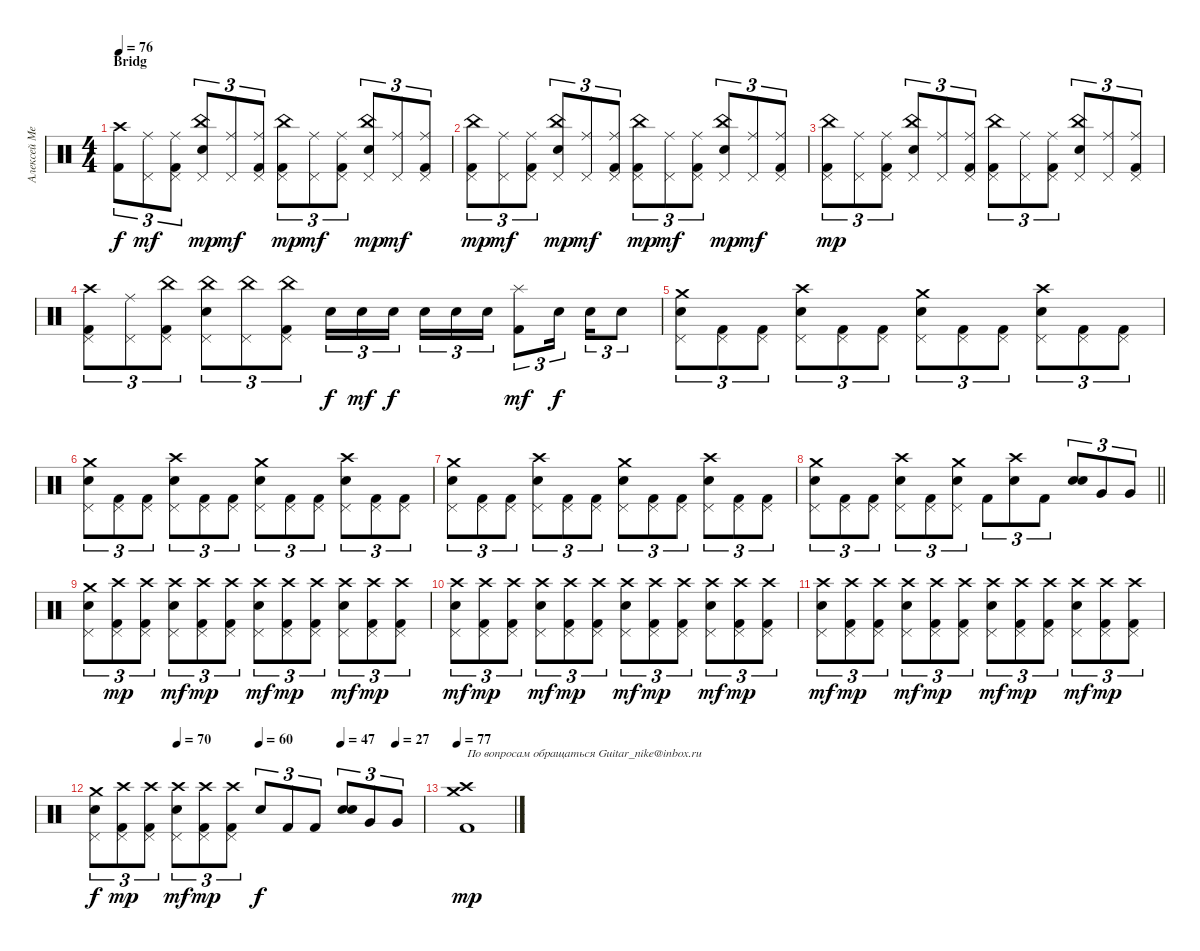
\track ("Алексей Мещеряков" "Алексей Ме") {instrument percussion}
\staff {score}
\articulation defaults
\ts (4 4)
\section ("" "Bridg")
\tempo 76
\clef neutral
\ks c
("Crash high (hit)" "Kick (hit) 2").8{tu (3 2) dy f} ("Ride (middle)" "Pedal Hi-Hat (hit)").8{tu (3 2) dy mf} ("Ride (middle)" "Pedal Hi-Hat (hit)" "Kick (hit) 2").8{tu (3 2)} ("China (hit)" "Pedal Hi-Hat (hit)" "Electric Snare (hit)").8{tu (3 2) dy mp} ("Ride (middle)" "Pedal Hi-Hat (hit)").8{tu (3 2) dy mf} ("Ride (middle)" "Pedal Hi-Hat (hit)" "Kick (hit) 2").8{tu (3 2)} ("China (hit)" "Pedal Hi-Hat (hit)" "Kick (hit) 2").8{tu (3 2) dy mp} ("Ride (middle)" "Pedal Hi-Hat (hit)").8{tu (3 2) dy mf} ("Ride (middle)" "Pedal Hi-Hat (hit)" "Kick (hit) 2").8{tu (3 2)} ("China (hit)" "Pedal Hi-Hat (hit)" "Electric Snare (hit)").8{tu (3 2) dy mp} ("Ride (middle)" "Pedal Hi-Hat (hit)").8{tu (3 2) dy mf} ("Ride (middle)" "Pedal Hi-Hat (hit)" "Kick (hit) 2").8{tu (3 2)} |
("China (hit)" "Pedal Hi-Hat (hit)" "Kick (hit) 2").8{tu (3 2) dy mp} ("Ride (middle)" "Pedal Hi-Hat (hit)").8{tu (3 2) dy mf} ("Ride (middle)" "Pedal Hi-Hat (hit)" "Kick (hit) 2").8{tu (3 2)} ("China (hit)" "Pedal Hi-Hat (hit)" "Electric Snare (hit)").8{tu (3 2) dy mp} ("Ride (middle)" "Pedal Hi-Hat (hit)").8{tu (3 2) dy mf} ("Ride (middle)" "Pedal Hi-Hat (hit)" "Kick (hit) 2").8{tu (3 2)} ("China (hit)" "Pedal Hi-Hat (hit)" "Kick (hit) 2").8{tu (3 2) dy mp} ("Ride (middle)" "Pedal Hi-Hat (hit)").8{tu (3 2) dy mf} ("Ride (middle)" "Pedal Hi-Hat (hit)" "Kick (hit) 2").8{tu (3 2)} ("China (hit)" "Pedal Hi-Hat (hit)" "Electric Snare (hit)").8{tu (3 2) dy mp} ("Ride (middle)" "Pedal Hi-Hat (hit)").8{tu (3 2) dy mf} ("Ride (middle)" "Pedal Hi-Hat (hit)" "Kick (hit) 2").8{tu (3 2)} |
("China (hit)" "Pedal Hi-Hat (hit)" "Kick (hit) 2").8{tu (3 2) dy mp} ("Ride (middle)" "Pedal Hi-Hat (hit)").8{tu (3 2)} ("Ride (middle)" "Pedal Hi-Hat (hit)" "Kick (hit) 2").8{tu (3 2)} ("China (hit)" "Pedal Hi-Hat (hit)" "Electric Snare (hit)").8{tu (3 2)} ("Ride (middle)" "Pedal Hi-Hat (hit)").8{tu (3 2)} ("Ride (middle)" "Pedal Hi-Hat (hit)" "Kick (hit) 2").8{tu (3 2)} ("China (hit)" "Pedal Hi-Hat (hit)" "Kick (hit) 2").8{tu (3 2)} ("Ride (middle)" "Pedal Hi-Hat (hit)").8{tu (3 2)} ("Ride (middle)" "Pedal Hi-Hat (hit)" "Kick (hit) 2").8{tu (3 2)} ("China (hit)" "Pedal Hi-Hat (hit)" "Electric Snare (hit)").8{tu (3 2)} ("Ride (middle)" "Pedal Hi-Hat (hit)").8{tu (3 2)} ("Ride (middle)" "Pedal Hi-Hat (hit)" "Kick (hit) 2").8{tu (3 2)} |
("Crash high (hit)" "Pedal Hi-Hat (hit)" "Kick (hit) 2").8{tu (3 2)} ("Ride (middle)" "Pedal Hi-Hat (hit)").8{tu (3 2)} ("China (hit)" "Pedal Hi-Hat (hit)" "Kick (hit) 2").8{tu (3 2)} ("China (hit)" "Pedal Hi-Hat (hit)" "Electric Snare (hit)").8{tu (3 2)} ("China (hit)" "Pedal Hi-Hat (hit)").8{tu (3 2)} ("China (hit)" "Pedal Hi-Hat (hit)" "Kick (hit) 2").8{tu (3 2)} "Electric Snare (hit)".16{tu (3 2) dy f} "Electric Snare (hit)".16{tu (3 2) dy mf} "Electric Snare (hit)".16{tu (3 2) dy f beam splitsecondary} "Electric Snare (hit)".16{tu (3 2)} "Electric Snare (hit)".16{tu (3 2)} "Electric Snare (hit)".16{tu (3 2)} ("Splash (hit)" "Kick (hit) 2").8{tu (3 2) dy mf} "Electric Snare (hit)".16{tu (3 2) dy f beam splitsecondary} "Electric Snare (hit)".16{tu (3 2)} "Electric Snare (hit)".8{tu (3 2)} |
("Crash medium (hit)" "Pedal Hi-Hat (hit)" "Electric Snare (hit)").8{tu (3 2)} ("Pedal Hi-Hat (hit)" "Kick (hit) 2").8{tu (3 2)} ("Pedal Hi-Hat (hit)" "Kick (hit) 2").8{tu (3 2)} ("Crash high (hit)" "Pedal Hi-Hat (hit)" "Electric Snare (hit)").8{tu (3 2)} ("Pedal Hi-Hat (hit)" "Kick (hit) 2").8{tu (3 2)} ("Pedal Hi-Hat (hit)" "Kick (hit) 2").8{tu (3 2)} ("Crash medium (hit)" "Pedal Hi-Hat (hit)" "Electric Snare (hit)").8{tu (3 2)} ("Pedal Hi-Hat (hit)" "Kick (hit) 2").8{tu (3 2)} ("Pedal Hi-Hat (hit)" "Kick (hit) 2").8{tu (3 2)} ("Crash high (hit)" "Pedal Hi-Hat (hit)" "Electric Snare (hit)").8{tu (3 2)} ("Pedal Hi-Hat (hit)" "Kick (hit) 2").8{tu (3 2)} ("Pedal Hi-Hat (hit)" "Kick (hit) 2").8{tu (3 2)} |
("Crash medium (hit)" "Pedal Hi-Hat (hit)" "Electric Snare (hit)").8{tu (3 2)} ("Pedal Hi-Hat (hit)" "Kick (hit) 2").8{tu (3 2)} ("Pedal Hi-Hat (hit)" "Kick (hit) 2").8{tu (3 2)} ("Crash high (hit)" "Pedal Hi-Hat (hit)" "Electric Snare (hit)").8{tu (3 2)} ("Pedal Hi-Hat (hit)" "Kick (hit) 2").8{tu (3 2)} ("Pedal Hi-Hat (hit)" "Kick (hit) 2").8{tu (3 2)} ("Crash medium (hit)" "Pedal Hi-Hat (hit)" "Electric Snare (hit)").8{tu (3 2)} ("Pedal Hi-Hat (hit)" "Kick (hit) 2").8{tu (3 2)} ("Pedal Hi-Hat (hit)" "Kick (hit) 2").8{tu (3 2)} ("Crash high (hit)" "Pedal Hi-Hat (hit)" "Electric Snare (hit)").8{tu (3 2)} ("Pedal Hi-Hat (hit)" "Kick (hit) 2").8{tu (3 2)} ("Pedal Hi-Hat (hit)" "Kick (hit) 2").8{tu (3 2)} |
("Crash medium (hit)" "Pedal Hi-Hat (hit)" "Electric Snare (hit)").8{tu (3 2)} ("Pedal Hi-Hat (hit)" "Kick (hit) 2").8{tu (3 2)} ("Pedal Hi-Hat (hit)" "Kick (hit) 2").8{tu (3 2)} ("Crash high (hit)" "Pedal Hi-Hat (hit)" "Electric Snare (hit)").8{tu (3 2)} ("Pedal Hi-Hat (hit)" "Kick (hit) 2").8{tu (3 2)} ("Pedal Hi-Hat (hit)" "Kick (hit) 2").8{tu (3 2)} ("Crash medium (hit)" "Pedal Hi-Hat (hit)" "Electric Snare (hit)").8{tu (3 2)} ("Pedal Hi-Hat (hit)" "Kick (hit) 2").8{tu (3 2)} ("Pedal Hi-Hat (hit)" "Kick (hit) 2").8{tu (3 2)} ("Crash high (hit)" "Pedal Hi-Hat (hit)" "Electric Snare (hit)").8{tu (3 2)} ("Pedal Hi-Hat (hit)" "Kick (hit) 2").8{tu (3 2)} ("Pedal Hi-Hat (hit)" "Kick (hit) 2").8{tu (3 2)} |
\barLineRight lightlight
("Crash medium (hit)" "Pedal Hi-Hat (hit)" "Electric Snare (hit)").8{tu (3 2)} ("Pedal Hi-Hat (hit)" "Kick (hit) 2").8{tu (3 2)} ("Pedal Hi-Hat (hit)" "Kick (hit) 2").8{tu (3 2)} ("Crash high (hit)" "Pedal Hi-Hat (hit)" "Electric Snare (hit)").8{tu (3 2)} ("Pedal Hi-Hat (hit)" "Kick (hit) 2").8{tu (3 2)} ("Crash medium (hit)" "Pedal Hi-Hat (hit)" "Electric Snare (hit)").8{tu (3 2)} "Kick (hit) 2".8{tu (3 2)} ("Crash high (hit)" "Electric Snare (hit)").8{tu (3 2)} "Kick (hit) 2".8{tu (3 2)} ("Electric Snare (hit)" "Electric Snare (hit)").8{tu (3 2)} "Very Low Tom (hit)".8{tu (3 2)} "Very Low Tom (hit)".8{tu (3 2)} |
("Crash medium (hit)" "Pedal Hi-Hat (hit)" "Electric Snare (hit)").8{tu (3 2)} ("Crash high (hit)" "Pedal Hi-Hat (hit)" "Kick (hit) 2").8{tu (3 2) dy mp} ("Crash high (hit)" "Pedal Hi-Hat (hit)" "Kick (hit) 2").8{tu (3 2)} ("Crash high (hit)" "Pedal Hi-Hat (hit)" "Electric Snare (hit)").8{tu (3 2) dy mf} ("Crash high (hit)" "Pedal Hi-Hat (hit)" "Kick (hit) 2").8{tu (3 2) dy mp} ("Crash high (hit)" "Pedal Hi-Hat (hit)" "Kick (hit) 2").8{tu (3 2)} ("Crash high (hit)" "Pedal Hi-Hat (hit)" "Electric Snare (hit)").8{tu (3 2) dy mf} ("Crash high (hit)" "Pedal Hi-Hat (hit)" "Kick (hit) 2").8{tu (3 2) dy mp} ("Crash high (hit)" "Pedal Hi-Hat (hit)" "Kick (hit) 2").8{tu (3 2)} ("Crash high (hit)" "Pedal Hi-Hat (hit)" "Electric Snare (hit)").8{tu (3 2) dy mf} ("Crash high (hit)" "Pedal Hi-Hat (hit)" "Kick (hit) 2").8{tu (3 2) dy mp} ("Crash high (hit)" "Pedal Hi-Hat (hit)" "Kick (hit) 2").8{tu (3 2)} |
("Crash high (hit)" "Pedal Hi-Hat (hit)" "Electric Snare (hit)").8{tu (3 2) dy mf} ("Crash high (hit)" "Pedal Hi-Hat (hit)" "Kick (hit) 2").8{tu (3 2) dy mp} ("Crash high (hit)" "Pedal Hi-Hat (hit)" "Kick (hit) 2").8{tu (3 2)} ("Crash high (hit)" "Pedal Hi-Hat (hit)" "Electric Snare (hit)").8{tu (3 2) dy mf} ("Crash high (hit)" "Pedal Hi-Hat (hit)" "Kick (hit) 2").8{tu (3 2) dy mp} ("Crash high (hit)" "Pedal Hi-Hat (hit)" "Kick (hit) 2").8{tu (3 2)} ("Crash high (hit)" "Pedal Hi-Hat (hit)" "Electric Snare (hit)").8{tu (3 2) dy mf} ("Crash high (hit)" "Pedal Hi-Hat (hit)" "Kick (hit) 2").8{tu (3 2) dy mp} ("Crash high (hit)" "Pedal Hi-Hat (hit)" "Kick (hit) 2").8{tu (3 2)} ("Crash high (hit)" "Pedal Hi-Hat (hit)" "Electric Snare (hit)").8{tu (3 2) dy mf} ("Crash high (hit)" "Pedal Hi-Hat (hit)" "Kick (hit) 2").8{tu (3 2) dy mp} ("Crash high (hit)" "Pedal Hi-Hat (hit)" "Kick (hit) 2").8{tu (3 2)} |
("Crash high (hit)" "Pedal Hi-Hat (hit)" "Electric Snare (hit)").8{tu (3 2) dy mf} ("Crash high (hit)" "Pedal Hi-Hat (hit)" "Kick (hit) 2").8{tu (3 2) dy mp} ("Crash high (hit)" "Pedal Hi-Hat (hit)" "Kick (hit) 2").8{tu (3 2)} ("Crash high (hit)" "Pedal Hi-Hat (hit)" "Electric Snare (hit)").8{tu (3 2) dy mf} ("Crash high (hit)" "Pedal Hi-Hat (hit)" "Kick (hit) 2").8{tu (3 2) dy mp} ("Crash high (hit)" "Pedal Hi-Hat (hit)" "Kick (hit) 2").8{tu (3 2)} ("Crash high (hit)" "Pedal Hi-Hat (hit)" "Electric Snare (hit)").8{tu (3 2) dy mf} ("Crash high (hit)" "Pedal Hi-Hat (hit)" "Kick (hit) 2").8{tu (3 2) dy mp} ("Crash high (hit)" "Pedal Hi-Hat (hit)" "Kick (hit) 2").8{tu (3 2)} ("Crash high (hit)" "Pedal Hi-Hat (hit)" "Electric Snare (hit)").8{tu (3 2) dy mf} ("Crash high (hit)" "Pedal Hi-Hat (hit)" "Kick (hit) 2").8{tu (3 2) dy mp} ("Crash high (hit)" "Pedal Hi-Hat (hit)" "Kick (hit) 2").8{tu (3 2)} |
\tempo (70 0.25)
\tempo (60 0.5)
\tempo (47 0.75)
\tempo (27 0.9166666666666666)
("Crash medium (hit)" "Pedal Hi-Hat (hit)" "Electric Snare (hit)").8{tu (3 2) dy f} ("Crash high (hit)" "Pedal Hi-Hat (hit)" "Kick (hit) 2").8{tu (3 2) dy mp} ("Crash high (hit)" "Pedal Hi-Hat (hit)" "Kick (hit) 2").8{tu (3 2)} ("Crash high (hit)" "Pedal Hi-Hat (hit)" "Electric Snare (hit)").8{tu (3 2) dy mf} ("Crash high (hit)" "Pedal Hi-Hat (hit)" "Kick (hit) 2").8{tu (3 2) dy mp} ("Crash high (hit)" "Pedal Hi-Hat (hit)" "Kick (hit) 2").8{tu (3 2)} "Electric Snare (hit)".8{tu (3 2) dy f} "Kick (hit) 2".8{tu (3 2)} "Kick (hit) 2".8{tu (3 2)} ("Electric Snare (hit)" "Electric Snare (hit)").8{tu (3 2)} "Very Low Tom (hit)".8{tu (3 2)} "Very Low Tom (hit)".8{tu (3 2)} |
\tempo 77
("Crash high (hit)" "Crash medium (hit)" "Kick (hit) 2").1{txt "По вопросам обращаться Guitar_nike@inbox.ru" dy mp}
